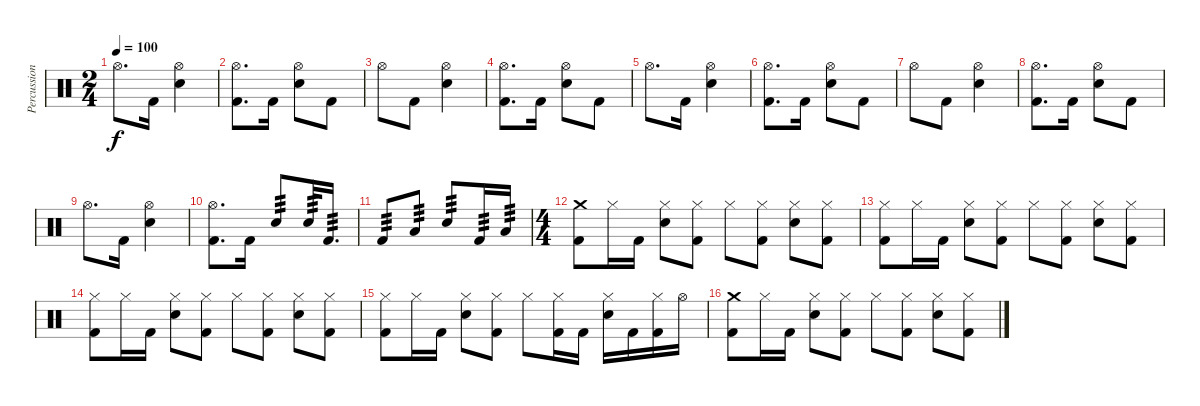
\track ("Percussion" "Percussion") {instrument percussion}
\staff {score}
\articulation defaults
\ts (2 4)
\tempo 100
\clef neutral
\ks c "Hi-Hat (open)".8{d dy f} "Kick (hit) 2".16
("Hi-Hat (open)" "Electric Snare (hit)").4 |
("Hi-Hat (open)" "Kick (hit) 2").8{d} "Kick (hit) 2".16 ("Hi-Hat (open)" "Electric Snare (hit)").8 "Kick (hit) 2".8 |
"Hi-Hat (open)".8 "Kick (hit) 2".8 ("Hi-Hat (open)" "Electric Snare (hit)").4 |
("Hi-Hat (open)" "Kick (hit) 2").8{d} "Kick (hit) 2".16 ("Hi-Hat (open)" "Electric Snare (hit)").8 "Kick (hit) 2".8 |
"Hi-Hat (open)".8{d} "Kick (hit) 2".16 ("Hi-Hat (open)" "Electric Snare (hit)").4 |
("Hi-Hat (open)" "Kick (hit) 2").8{d} "Kick (hit) 2".16 ("Hi-Hat (open)" "Electric Snare (hit)").8 "Kick (hit) 2".8 |
"Hi-Hat (open)".8 "Kick (hit) 2".8 ("Hi-Hat (open)" "Electric Snare (hit)").4 |
("Hi-Hat (open)" "Kick (hit) 2").8{d} "Kick (hit) 2".16 ("Hi-Hat (open)" "Electric Snare (hit)").8 "Kick (hit) 2".8 |
"Hi-Hat (open)".8{d} "Kick (hit) 2".16 ("Hi-Hat (open)" "Electric Snare (hit)").4 |
("Hi-Hat (open)" "Kick (hit) 2").8{d} "Kick (hit) 2".16 "Electric Snare (hit)".8{tp 3} "Electric Snare (hit)".32{tp 3} "Kick (hit) 2".16{d tp 3} |
"Kick (hit) 2".8{tp 3} "Low Floor Tom (hit)".8{tp 3} "Electric Snare (hit)".8{tp 3} "Kick (hit) 2".16{tp 3} "Low Floor Tom (hit)".16{tp 3} |
\ts (4 4)
("Crash medium (hit)" "Kick (hit) 2").8 "Hi-Hat (closed)".16 "Kick (hit) 2".16 ("Hi-Hat (closed)" "Electric Snare (hit)").8 ("Hi-Hat (closed)" "Kick (hit) 2").8 "Hi-Hat (closed)".8 ("Hi-Hat (closed)" "Kick (hit) 2").8 ("Hi-Hat (closed)" "Electric Snare (hit)").8 ("Hi-Hat (closed)" "Kick (hit) 2").8 |
("Hi-Hat (closed)" "Kick (hit) 2").8 "Hi-Hat (closed)".16 "Kick (hit) 2".16 ("Hi-Hat (closed)" "Electric Snare (hit)").8 ("Hi-Hat (closed)" "Kick (hit) 2").8 "Hi-Hat (closed)".8 ("Hi-Hat (closed)" "Kick (hit) 2").8 ("Hi-Hat (closed)" "Electric Snare (hit)").8 ("Hi-Hat (closed)" "Kick (hit) 2").8 |
("Hi-Hat (closed)" "Kick (hit) 2").8 "Hi-Hat (closed)".16 "Kick (hit) 2".16 ("Hi-Hat (closed)" "Electric Snare (hit)").8 ("Hi-Hat (closed)" "Kick (hit) 2").8 "Hi-Hat (closed)".8 ("Hi-Hat (closed)" "Kick (hit) 2").8 ("Hi-Hat (closed)" "Electric Snare (hit)").8 ("Hi-Hat (closed)" "Kick (hit) 2").8 |
("Hi-Hat (closed)" "Kick (hit) 2").8 "Hi-Hat (closed)".16 "Kick (hit) 2".16 ("Hi-Hat (closed)" "Electric Snare (hit)").8 ("Hi-Hat (closed)" "Kick (hit) 2").8 "Hi-Hat (closed)".8 ("Hi-Hat (closed)" "Kick (hit) 2").16 "Kick (hit) 2".16 ("Hi-Hat (closed)" "Electric Snare (hit)").16 "Kick (hit) 2".16 ("Hi-Hat (closed)" "Kick (hit) 2").16 "Hi-Hat (open)".16 |
("Crash medium (hit)" "Kick (hit) 2").8 "Hi-Hat (closed)".16 "Kick (hit) 2".16 ("Hi-Hat (closed)" "Electric Snare (hit)").8 ("Hi-Hat (closed)" "Kick (hit) 2").8 "Hi-Hat (closed)".8 ("Hi-Hat (closed)" "Kick (hit) 2").8 ("Hi-Hat (closed)" "Electric Snare (hit)").8 ("Hi-Hat (closed)" "Kick (hit) 2").8
